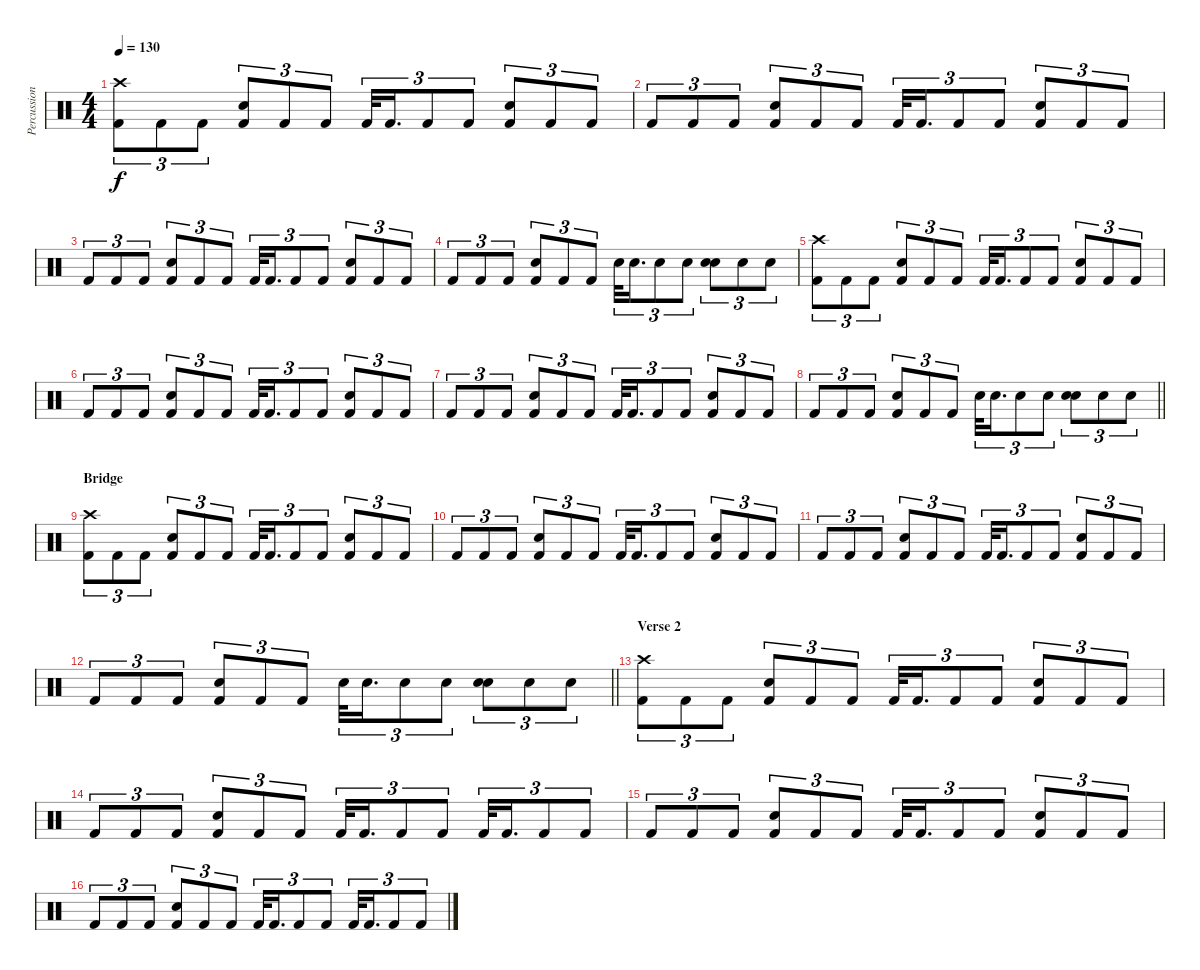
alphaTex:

\track ("Percussions" "Percussion") {instrument percussion}
\staff {score}
\articulation defaults
\ts (4 4)
\tempo 130
\clef neutral
\ks c
("Crash high (hit)" "Kick (hit) 2").8{tu (3 2) dy f} "Kick (hit) 2".8{tu (3 2)} "Kick (hit) 2".8{tu (3 2)} ("Electric Snare (hit)" "Kick (hit) 2").8{tu (3 2)} "Kick (hit) 2".8{tu (3 2)} "Kick (hit) 2".8{tu (3 2)} "Kick (hit) 2".32{tu (3 2)} "Kick (hit) 2".16{d tu (3 2)} "Kick (hit) 2".8{tu (3 2)} "Kick (hit) 2".8{tu (3 2)} ("Electric Snare (hit)" "Kick (hit) 2").8{tu (3 2)} "Kick (hit) 2".8{tu (3 2)} "Kick (hit) 2".8{tu (3 2)} |
"Kick (hit) 2".8{tu (3 2)} "Kick (hit) 2".8{tu (3 2)} "Kick (hit) 2".8{tu (3 2)} ("Electric Snare (hit)" "Kick (hit) 2").8{tu (3 2)} "Kick (hit) 2".8{tu (3 2)} "Kick (hit) 2".8{tu (3 2)} "Kick (hit) 2".32{tu (3 2)} "Kick (hit) 2".16{d tu (3 2)} "Kick (hit) 2".8{tu (3 2)} "Kick (hit) 2".8{tu (3 2)} ("Electric Snare (hit)" "Kick (hit) 2").8{tu (3 2)} "Kick (hit) 2".8{tu (3 2)} "Kick (hit) 2".8{tu (3 2)} |
"Kick (hit) 2".8{tu (3 2)} "Kick (hit) 2".8{tu (3 2)} "Kick (hit) 2".8{tu (3 2)} ("Electric Snare (hit)" "Kick (hit) 2").8{tu (3 2)} "Kick (hit) 2".8{tu (3 2)} "Kick (hit) 2".8{tu (3 2)} "Kick (hit) 2".32{tu (3 2)} "Kick (hit) 2".16{d tu (3 2)} "Kick (hit) 2".8{tu (3 2)} "Kick (hit) 2".8{tu (3 2)} ("Electric Snare (hit)" "Kick (hit) 2").8{tu (3 2)} "Kick (hit) 2".8{tu (3 2)} "Kick (hit) 2".8{tu (3 2)} |
"Kick (hit) 2".8{tu (3 2)} "Kick (hit) 2".8{tu (3 2)} "Kick (hit) 2".8{tu (3 2)} ("Electric Snare (hit)" "Kick (hit) 2").8{tu (3 2)} "Kick (hit) 2".8{tu (3 2)} "Kick (hit) 2".8{tu (3 2)} "Electric Snare (hit)".32{tu (3 2)} "Electric Snare (hit)".16{d tu (3 2)} "Electric Snare (hit)".8{tu (3 2)} "Electric Snare (hit)".8{tu (3 2)} ("Electric Snare (hit)" "Electric Snare (hit)").8{tu (3 2)} "Electric Snare (hit)".8{tu (3 2)} "Electric Snare (hit)".8{tu (3 2)} |
("Crash high (hit)" "Kick (hit) 2").8{tu (3 2)} "Kick (hit) 2".8{tu (3 2)} "Kick (hit) 2".8{tu (3 2)} ("Electric Snare (hit)" "Kick (hit) 2").8{tu (3 2)} "Kick (hit) 2".8{tu (3 2)} "Kick (hit) 2".8{tu (3 2)} "Kick (hit) 2".32{tu (3 2)} "Kick (hit) 2".16{d tu (3 2)} "Kick (hit) 2".8{tu (3 2)} "Kick (hit) 2".8{tu (3 2)} ("Electric Snare (hit)" "Kick (hit) 2").8{tu (3 2)} "Kick (hit) 2".8{tu (3 2)} "Kick (hit) 2".8{tu (3 2)} |
"Kick (hit) 2".8{tu (3 2)} "Kick (hit) 2".8{tu (3 2)} "Kick (hit) 2".8{tu (3 2)} ("Electric Snare (hit)" "Kick (hit) 2").8{tu (3 2)} "Kick (hit) 2".8{tu (3 2)} "Kick (hit) 2".8{tu (3 2)} "Kick (hit) 2".32{tu (3 2)} "Kick (hit) 2".16{d tu (3 2)} "Kick (hit) 2".8{tu (3 2)} "Kick (hit) 2".8{tu (3 2)} ("Electric Snare (hit)" "Kick (hit) 2").8{tu (3 2)} "Kick (hit) 2".8{tu (3 2)} "Kick (hit) 2".8{tu (3 2)} |
"Kick (hit) 2".8{tu (3 2)} "Kick (hit) 2".8{tu (3 2)} "Kick (hit) 2".8{tu (3 2)} ("Electric Snare (hit)" "Kick (hit) 2").8{tu (3 2)} "Kick (hit) 2".8{tu (3 2)} "Kick (hit) 2".8{tu (3 2)} "Kick (hit) 2".32{tu (3 2)} "Kick (hit) 2".16{d tu (3 2)} "Kick (hit) 2".8{tu (3 2)} "Kick (hit) 2".8{tu (3 2)} ("Electric Snare (hit)" "Kick (hit) 2").8{tu (3 2)} "Kick (hit) 2".8{tu (3 2)} "Kick (hit) 2".8{tu (3 2)} |
\barLineRight lightlight "Kick (hit) 2".8{tu (3 2)} "Kick (hit) 2".8{tu (3 2)} "Kick (hit) 2".8{tu (3 2)}
("Electric Snare (hit)" "Kick (hit) 2").8{tu (3 2)} "Kick (hit) 2".8{tu (3 2)} "Kick (hit) 2".8{tu (3 2)} "Electric Snare (hit)".32{tu (3 2)} "Electric Snare (hit)".16{d tu (3 2)} "Electric Snare (hit)".8{tu (3 2)} "Electric Snare (hit)".8{tu (3 2)} ("Electric Snare (hit)" "Electric Snare (hit)").8{tu (3 2)} "Electric Snare (hit)".8{tu (3 2)} "Electric Snare (hit)".8{tu (3 2)} |
\section ("" "Bridge")
("Crash high (hit)" "Kick (hit) 2").8{tu (3 2)} "Kick (hit) 2".8{tu (3 2)} "Kick (hit) 2".8{tu (3 2)} ("Electric Snare (hit)" "Kick (hit) 2").8{tu (3 2)} "Kick (hit) 2".8{tu (3 2)} "Kick (hit) 2".8{tu (3 2)} "Kick (hit) 2".32{tu (3 2)} "Kick (hit) 2".16{d tu (3 2)} "Kick (hit) 2".8{tu (3 2)} "Kick (hit) 2".8{tu (3 2)} ("Electric Snare (hit)" "Kick (hit) 2").8{tu (3 2)} "Kick (hit) 2".8{tu (3 2)} "Kick (hit) 2".8{tu (3 2)} |
"Kick (hit) 2".8{tu (3 2)} "Kick (hit) 2".8{tu (3 2)} "Kick (hit) 2".8{tu (3 2)} ("Electric Snare (hit)" "Kick (hit) 2").8{tu (3 2)} "Kick (hit) 2".8{tu (3 2)} "Kick (hit) 2".8{tu (3 2)} "Kick (hit) 2".32{tu (3 2)} "Kick (hit) 2".16{d tu (3 2)} "Kick (hit) 2".8{tu (3 2)} "Kick (hit) 2".8{tu (3 2)} ("Electric Snare (hit)" "Kick (hit) 2").8{tu (3 2)} "Kick (hit) 2".8{tu (3 2)} "Kick (hit) 2".8{tu (3 2)} |
"Kick (hit) 2".8{tu (3 2)} "Kick (hit) 2".8{tu (3 2)} "Kick (hit) 2".8{tu (3 2)} ("Electric Snare (hit)" "Kick (hit) 2").8{tu (3 2)} "Kick (hit) 2".8{tu (3 2)} "Kick (hit) 2".8{tu (3 2)} "Kick (hit) 2".32{tu (3 2)} "Kick (hit) 2".16{d tu (3 2)} "Kick (hit) 2".8{tu (3 2)} "Kick (hit) 2".8{tu (3 2)} ("Electric Snare (hit)" "Kick (hit) 2").8{tu (3 2)} "Kick (hit) 2".8{tu (3 2)} "Kick (hit) 2".8{tu (3 2)} |
\barLineRight lightlight "Kick (hit) 2".8{tu (3 2)} "Kick (hit) 2".8{tu (3 2)} "Kick (hit) 2".8{tu (3 2)}
("Electric Snare (hit)" "Kick (hit) 2").8{tu (3 2)} "Kick (hit) 2".8{tu (3 2)} "Kick (hit) 2".8{tu (3 2)} "Electric Snare (hit)".32{tu (3 2)} "Electric Snare (hit)".16{d tu (3 2)} "Electric Snare (hit)".8{tu (3 2)} "Electric Snare (hit)".8{tu (3 2)} ("Electric Snare (hit)" "Electric Snare (hit)").8{tu (3 2)} "Electric Snare (hit)".8{tu (3 2)} "Electric Snare (hit)".8{tu (3 2)} |
\section ("" "Verse 2")
("Crash high (hit)" "Kick (hit) 2").8{tu (3 2)} "Kick (hit) 2".8{tu (3 2)} "Kick (hit) 2".8{tu (3 2)} ("Electric Snare (hit)" "Kick (hit) 2").8{tu (3 2)} "Kick (hit) 2".8{tu (3 2)} "Kick (hit) 2".8{tu (3 2)} "Kick (hit) 2".32{tu (3 2)} "Kick (hit) 2".16{d tu (3 2)} "Kick (hit) 2".8{tu (3 2)} "Kick (hit) 2".8{tu (3 2)} ("Electric Snare (hit)" "Kick (hit) 2").8{tu (3 2)} "Kick (hit) 2".8{tu (3 2)} "Kick (hit) 2".8{tu (3 2)} |
"Kick (hit) 2".8{tu (3 2)} "Kick (hit) 2".8{tu (3 2)} "Kick (hit) 2".8{tu (3 2)} ("Electric Snare (hit)" "Kick (hit) 2").8{tu (3 2)} "Kick (hit) 2".8{tu (3 2)} "Kick (hit) 2".8{tu (3 2)} "Kick (hit) 2".32{tu (3 2)} "Kick (hit) 2".16{d tu (3 2)} "Kick (hit) 2".8{tu (3 2)} "Kick (hit) 2".8{tu (3 2)} "Kick (hit) 2".32{tu (3 2)} "Kick (hit) 2".16{d tu (3 2)} "Kick (hit) 2".8{tu (3 2)} "Kick (hit) 2".8{tu (3 2)} |
"Kick (hit) 2".8{tu (3 2)} "Kick (hit) 2".8{tu (3 2)} "Kick (hit) 2".8{tu (3 2)} ("Electric Snare (hit)" "Kick (hit) 2").8{tu (3 2)} "Kick (hit) 2".8{tu (3 2)} "Kick (hit) 2".8{tu (3 2)} "Kick (hit) 2".32{tu (3 2)} "Kick (hit) 2".16{d tu (3 2)} "Kick (hit) 2".8{tu (3 2)} "Kick (hit) 2".8{tu (3 2)} ("Electric Snare (hit)" "Kick (hit) 2").8{tu (3 2)} "Kick (hit) 2".8{tu (3 2)} "Kick (hit) 2".8{tu (3 2)} |
"Kick (hit) 2".8{tu (3 2)} "Kick (hit) 2".8{tu (3 2)} "Kick (hit) 2".8{tu (3 2)} ("Electric Snare (hit)" "Kick (hit) 2").8{tu (3 2)} "Kick (hit) 2".8{tu (3 2)} "Kick (hit) 2".8{tu (3 2)} "Kick (hit) 2".32{tu (3 2)} "Kick (hit) 2".16{d tu (3 2)} "Kick (hit) 2".8{tu (3 2)} "Kick (hit) 2".8{tu (3 2)} "Kick (hit) 2".32{tu (3 2)} "Kick (hit) 2".16{d tu (3 2)} "Kick (hit) 2".8{tu (3 2)} "Kick (hit) 2".8{tu (3 2)}
